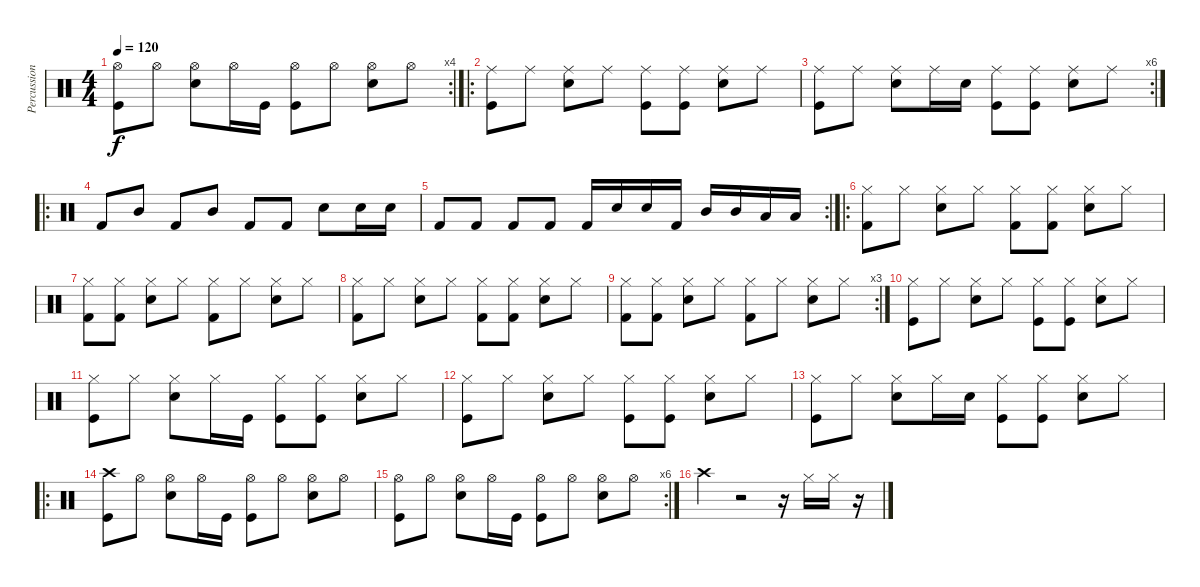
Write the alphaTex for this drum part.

\track ("Percussions" "Percussion") {instrument percussion}
\staff {score}
\articulation defaults
\rc 4
\ts (4 4)
\tempo 120
\clef neutral
\ks c
("Hi-Hat (open)" "Kick (hit)").8{dy f} "Hi-Hat (open)".8 ("Hi-Hat (open)" "Electric Snare (hit)").8 "Hi-Hat (open)".16 "Kick (hit)".16 ("Hi-Hat (open)" "Kick (hit)").8 "Hi-Hat (open)".8 ("Hi-Hat (open)" "Electric Snare (hit)").8 "Hi-Hat (open)".8 |
\ro
("Kick (hit)" "Ride (middle)").8 "Ride (middle)".8 ("Electric Snare (hit)" "Ride (middle)").8 "Ride (middle)".8 ("Kick (hit)" "Ride (middle)").8 ("Kick (hit)" "Ride (middle)").8 ("Electric Snare (hit)" "Ride (middle)").8 "Ride (middle)".8 |
\rc 6
("Kick (hit)" "Ride (middle)").8 "Ride (middle)".8 ("Electric Snare (hit)" "Ride (middle)").8 "Ride (middle)".16 "Electric Snare (hit)".16 ("Kick (hit)" "Ride (middle)").8 ("Kick (hit)" "Ride (middle)").8 ("Electric Snare (hit)" "Ride (middle)").8 "Ride (middle)".8 |
\ro "Kick (hit) 2".8 "Mid Tom (hit)".8 "Kick (hit) 2".8 "Mid Tom (hit)".8 "Kick (hit) 2".8 "Kick (hit) 2".8 "Snare (hit) 2".8 "Snare (hit) 2".16 "Snare (hit) 2".16
|
\rc 2 "Kick (hit) 2".8 "Kick (hit) 2".8 "Kick (hit) 2".8 "Kick (hit) 2".8 "Kick (hit) 2".16 "Snare (hit) 2".16 "Snare (hit) 2".16 "Kick (hit) 2".16 "Mid Tom (hit)".16 "Mid Tom (hit)".16 "Low Tom (hit)".16 "Low Tom (hit)".16
|
\ro
("Hi-Hat (closed)" "Kick (hit) 2").8 "Hi-Hat (closed)".8 ("Hi-Hat (closed)" "Snare (hit) 2").8 "Hi-Hat (closed)".8 ("Hi-Hat (closed)" "Kick (hit) 2").8 ("Hi-Hat (closed)" "Kick (hit) 2").8 ("Hi-Hat (closed)" "Snare (hit) 2").8 "Hi-Hat (closed)".8 |
("Hi-Hat (closed)" "Kick (hit) 2").8 ("Hi-Hat (closed)" "Kick (hit) 2").8 ("Hi-Hat (closed)" "Snare (hit) 2").8 "Hi-Hat (closed)".8 ("Hi-Hat (closed)" "Kick (hit) 2").8 "Hi-Hat (closed)".8 ("Hi-Hat (closed)" "Snare (hit) 2").8 "Hi-Hat (closed)".8 |
("Hi-Hat (closed)" "Kick (hit) 2").8 "Hi-Hat (closed)".8 ("Hi-Hat (closed)" "Snare (hit) 2").8 "Hi-Hat (closed)".8 ("Hi-Hat (closed)" "Kick (hit) 2").8 ("Hi-Hat (closed)" "Kick (hit) 2").8 ("Hi-Hat (closed)" "Snare (hit) 2").8 "Hi-Hat (closed)".8 |
\rc 3
("Hi-Hat (closed)" "Kick (hit) 2").8 ("Hi-Hat (closed)" "Kick (hit) 2").8 ("Hi-Hat (closed)" "Snare (hit) 2").8 "Hi-Hat (closed)".8 ("Hi-Hat (closed)" "Kick (hit) 2").8 "Hi-Hat (closed)".8 ("Hi-Hat (closed)" "Snare (hit) 2").8 "Hi-Hat (closed)".8 |
("Hi-Hat (closed)" "Kick (hit)").8 "Hi-Hat (closed)".8 ("Hi-Hat (closed)" "Electric Snare (hit)").8 "Hi-Hat (closed)".8 ("Hi-Hat (closed)" "Kick (hit)").8 ("Hi-Hat (closed)" "Kick (hit)").8 ("Hi-Hat (closed)" "Electric Snare (hit)").8 "Hi-Hat (closed)".8 |
("Hi-Hat (closed)" "Kick (hit)").8 "Hi-Hat (closed)".8 ("Hi-Hat (closed)" "Electric Snare (hit)").8 "Hi-Hat (closed)".16 "Kick (hit)".16 ("Hi-Hat (closed)" "Kick (hit)").8 ("Hi-Hat (closed)" "Kick (hit)").8 ("Hi-Hat (closed)" "Electric Snare (hit)").8 "Hi-Hat (closed)".8 |
("Hi-Hat (closed)" "Kick (hit)").8 "Hi-Hat (closed)".8 ("Hi-Hat (closed)" "Electric Snare (hit)").8 "Hi-Hat (closed)".8 ("Hi-Hat (closed)" "Kick (hit)").8 ("Hi-Hat (closed)" "Kick (hit)").8 ("Hi-Hat (closed)" "Electric Snare (hit)").8 "Hi-Hat (closed)".8 |
("Hi-Hat (closed)" "Kick (hit)").8 "Hi-Hat (closed)".8 ("Hi-Hat (closed)" "Electric Snare (hit)").8 "Hi-Hat (closed)".16 "Electric Snare (hit)".16 ("Hi-Hat (closed)" "Kick (hit)").8 ("Hi-Hat (closed)" "Kick (hit)").8 ("Hi-Hat (closed)" "Electric Snare (hit)").8 "Hi-Hat (closed)".8 |
\ro
("Crash high (hit)" "Kick (hit)").8 "Hi-Hat (open)".8 ("Hi-Hat (open)" "Electric Snare (hit)").8 "Hi-Hat (open)".16 "Kick (hit)".16 ("Hi-Hat (open)" "Kick (hit)").8 "Hi-Hat (open)".8 ("Hi-Hat (open)" "Electric Snare (hit)").8 "Hi-Hat (open)".8 |
\rc 6
("Hi-Hat (open)" "Kick (hit)").8 "Hi-Hat (open)".8 ("Hi-Hat (open)" "Electric Snare (hit)").8 "Hi-Hat (open)".16 "Kick (hit)".16 ("Hi-Hat (open)" "Kick (hit)").8 "Hi-Hat (open)".8 ("Hi-Hat (open)" "Electric Snare (hit)").8 "Hi-Hat (open)".8 |
"Crash high (hit)".4 r.2 r.16 "Hi-Hat (closed)".16 "Hi-Hat (closed)".16 r.16
